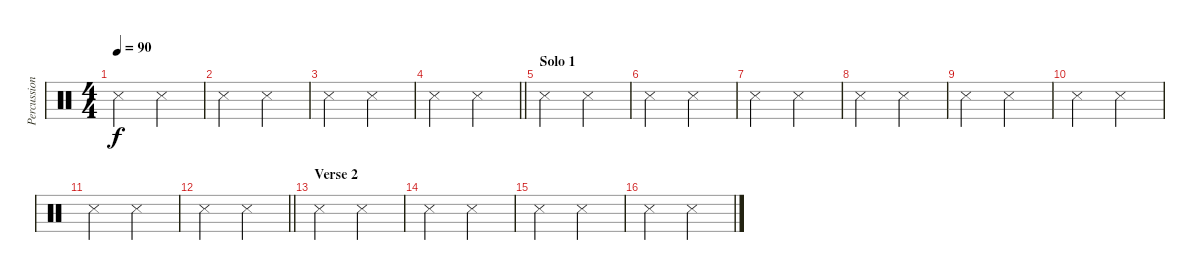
\track ("Percussion" "Percussion") {instrument percussion}
\staff {score}
\articulation defaults
\ts (4 4)
\tempo 90
\clef neutral
\ks c "Snare (side stick) 3".2{dy f} "Snare (side stick) 3".2
|
"Snare (side stick) 3".2 "Snare (side stick) 3".2 |
"Snare (side stick) 3".2 "Snare (side stick) 3".2 |
\barLineRight lightlight "Snare (side stick) 3".2 "Snare (side stick) 3".2
|
\section ("" "Solo 1")
"Snare (side stick) 3".2 "Snare (side stick) 3".2 |
"Snare (side stick) 3".2 "Snare (side stick) 3".2 |
"Snare (side stick) 3".2 "Snare (side stick) 3".2 |
"Snare (side stick) 3".2 "Snare (side stick) 3".2 |
"Snare (side stick) 3".2 "Snare (side stick) 3".2 |
"Snare (side stick) 3".2 "Snare (side stick) 3".2 |
"Snare (side stick) 3".2 "Snare (side stick) 3".2 |
\barLineRight lightlight "Snare (side stick) 3".2 "Snare (side stick) 3".2
|
\section ("" "Verse 2")
"Snare (side stick) 3".2 "Snare (side stick) 3".2 |
"Snare (side stick) 3".2 "Snare (side stick) 3".2 |
"Snare (side stick) 3".2 "Snare (side stick) 3".2 |
"Snare (side stick) 3".2 "Snare (side stick) 3".2
